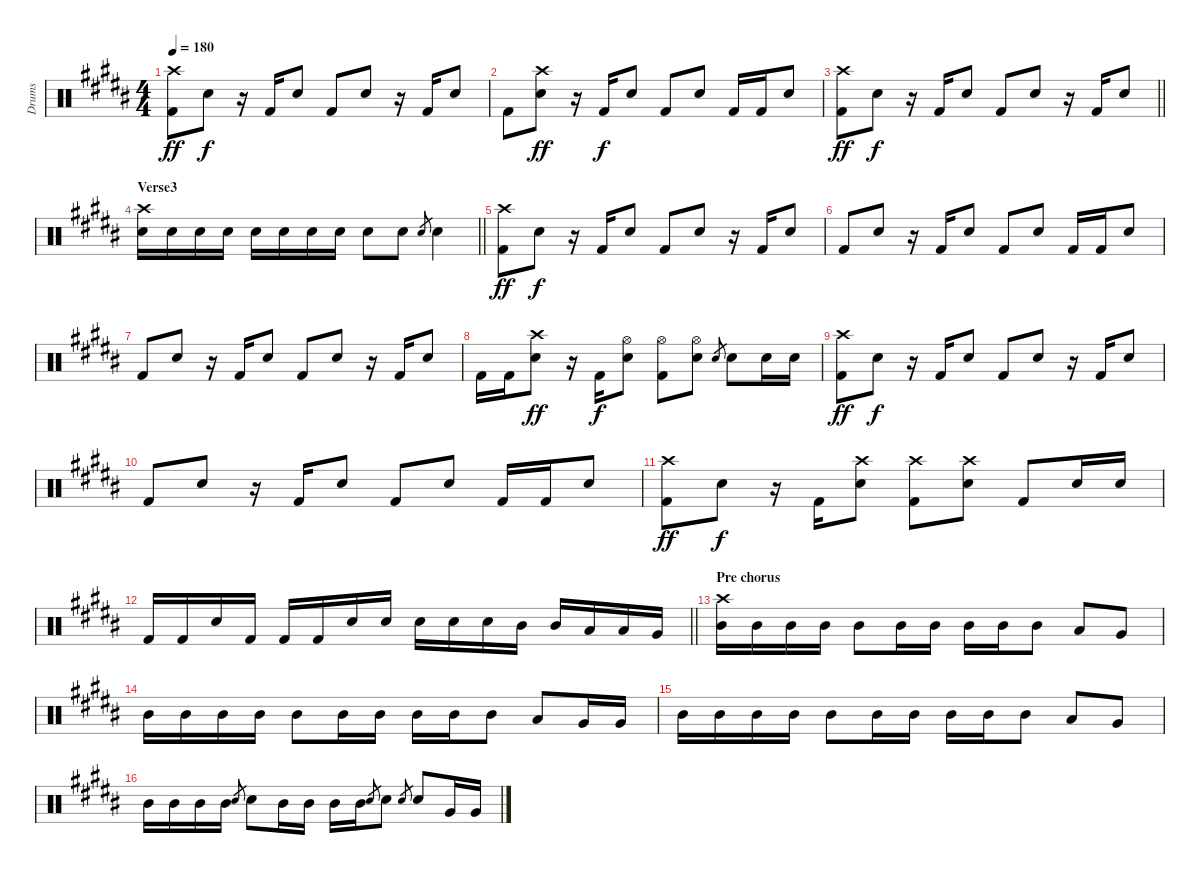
\track ("Drums" "Drums") {instrument percussion}
\staff {score}
\articulation defaults
\ts (4 4)
\tempo 180
\clef neutral
\ks g#minor
("Kick (hit) 2" "Crash high (hit)").8{dy ff} "Snare (hit) 2".8{dy f} r.16 "Kick (hit) 2".16 "Snare (hit) 2".8 "Kick (hit) 2".8 "Snare (hit) 2".8 r.16 "Kick (hit) 2".16 "Snare (hit) 2".8 |
"Kick (hit) 2".8 ("Snare (hit) 2" "Crash high (hit)").8{dy ff} r.16 "Kick (hit) 2".16{dy f} "Snare (hit) 2".8 "Kick (hit) 2".8 "Snare (hit) 2".8 "Kick (hit) 2".16 "Kick (hit) 2".16 "Snare (hit) 2".8 |
\barLineRight lightlight
("Kick (hit) 2" "Crash high (hit)").8{dy ff} "Snare (hit) 2".8{dy f} r.16 "Kick (hit) 2".16 "Snare (hit) 2".8 "Kick (hit) 2".8 "Snare (hit) 2".8 r.16 "Kick (hit) 2".16 "Snare (hit) 2".8 |
\section ("" "Verse3")
\barLineRight lightlight
("Snare (hit) 2" "Crash high (hit)").16 "Snare (hit) 2".16 "Snare (hit) 2".16 "Snare (hit) 2".16 "Snare (hit) 2".16 "Snare (hit) 2".16 "Snare (hit) 2".16 "Snare (hit) 2".16 "Snare (hit) 2".8 "Snare (hit) 2".8 "Snare (hit) 2".8{gr} "Snare (hit) 2".4 |
("Kick (hit) 2" "Crash high (hit)").8{dy ff} "Snare (hit) 2".8{dy f} r.16 "Kick (hit) 2".16 "Snare (hit) 2".8 "Kick (hit) 2".8 "Snare (hit) 2".8 r.16 "Kick (hit) 2".16 "Snare (hit) 2".8 |
"Kick (hit) 2".8 "Snare (hit) 2".8 r.16 "Kick (hit) 2".16 "Snare (hit) 2".8 "Kick (hit) 2".8 "Snare (hit) 2".8 "Kick (hit) 2".16 "Kick (hit) 2".16 "Snare (hit) 2".8 |
"Kick (hit) 2".8 "Snare (hit) 2".8 r.16 "Kick (hit) 2".16 "Snare (hit) 2".8 "Kick (hit) 2".8 "Snare (hit) 2".8 r.16 "Kick (hit) 2".16 "Snare (hit) 2".8 |
"Kick (hit) 2".16 "Kick (hit) 2".16 ("Snare (hit) 2" "Crash high (hit)").8{dy ff} r.16 "Kick (hit) 2".16{dy f} ("Snare (hit) 2" "Hi-Hat (open)").8 ("Kick (hit) 2" "Hi-Hat (open)").8 ("Snare (hit) 2" "Hi-Hat (open)").8 "Snare (hit) 2".8{gr} "Snare (hit) 2".8 "Snare (hit) 2".16 "Snare (hit) 2".16 |
("Kick (hit) 2" "Crash high (hit)").8{dy ff} "Snare (hit) 2".8{dy f} r.16 "Kick (hit) 2".16 "Snare (hit) 2".8 "Kick (hit) 2".8 "Snare (hit) 2".8 r.16 "Kick (hit) 2".16 "Snare (hit) 2".8 |
"Kick (hit) 2".8 "Snare (hit) 2".8 r.16 "Kick (hit) 2".16 "Snare (hit) 2".8 "Kick (hit) 2".8 "Snare (hit) 2".8 "Kick (hit) 2".16 "Kick (hit) 2".16 "Snare (hit) 2".8 |
("Kick (hit) 2" "Crash high (hit)").8{dy ff} "Snare (hit) 2".8{dy f} r.16 "Kick (hit) 2".16 ("Snare (hit) 2" "Crash high (hit)").8 ("Kick (hit) 2" "Crash high (hit)").8 ("Snare (hit) 2" "Crash high (hit)").8 "Kick (hit) 2".8 "Snare (hit) 2".16 "Snare (hit) 2".16 |
\barLineRight lightlight "Kick (hit) 2".16 "Kick (hit) 2".16 "Snare (hit) 2".16 "Kick (hit) 2".16 "Kick (hit) 2".16 "Kick (hit) 2".16 "Snare (hit) 2".16 "Snare (hit) 2".16 "Snare (hit) 2".16 "Snare (hit) 2".16 "Snare (hit) 2".16 "Mid Tom (hit)".16 "Mid Tom (hit)".16 "Low Tom (hit)".16 "Low Tom (hit)".16 "Very Low Tom (hit)".16
|
\section ("" "Pre chorus")
("Crash high (hit)" "Mid Tom (hit)").16 "Mid Tom (hit)".16 "Mid Tom (hit)".16 "Mid Tom (hit)".16 "Mid Tom (hit)".8 "Mid Tom (hit)".16 "Mid Tom (hit)".16 "Mid Tom (hit)".16 "Mid Tom (hit)".16 "Mid Tom (hit)".8 "Low Tom (hit)".8 "Very Low Tom (hit)".8 |
"Mid Tom (hit)".16 "Mid Tom (hit)".16 "Mid Tom (hit)".16 "Mid Tom (hit)".16 "Mid Tom (hit)".8 "Mid Tom (hit)".16 "Mid Tom (hit)".16 "Mid Tom (hit)".16 "Mid Tom (hit)".16 "Mid Tom (hit)".8 "Low Tom (hit)".8 "Very Low Tom (hit)".16 "Very Low Tom (hit)".16 |
"Mid Tom (hit)".16 "Mid Tom (hit)".16 "Mid Tom (hit)".16 "Mid Tom (hit)".16 "Mid Tom (hit)".8 "Mid Tom (hit)".16 "Mid Tom (hit)".16 "Mid Tom (hit)".16 "Mid Tom (hit)".16 "Mid Tom (hit)".8 "Low Tom (hit)".8 "Very Low Tom (hit)".8 |
"Mid Tom (hit)".16 "Mid Tom (hit)".16 "Mid Tom (hit)".16 "Mid Tom (hit)".16 "Snare (hit) 2".8{gr} "Snare (hit) 2".8 "Mid Tom (hit)".16 "Mid Tom (hit)".16 "Mid Tom (hit)".16 "Mid Tom (hit)".16 "Snare (hit) 2".8{gr} "Snare (hit) 2".8 "Snare (hit) 2".8{gr} "Snare (hit) 2".8 "Very Low Tom (hit)".16 "Very Low Tom (hit)".16
